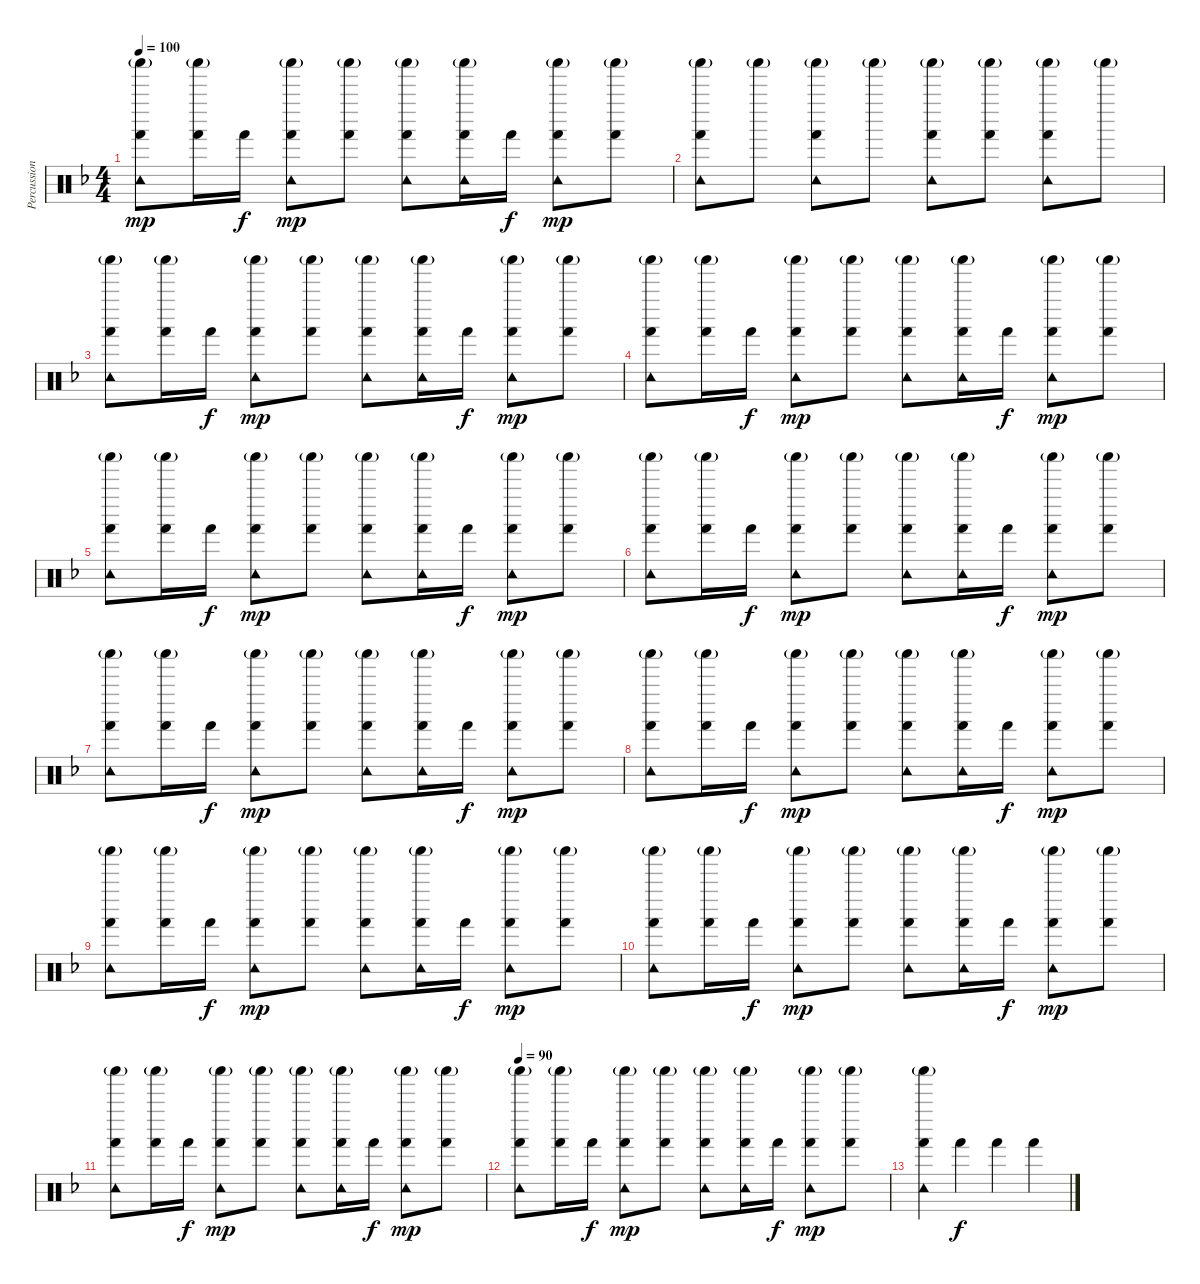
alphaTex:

\track ("Percussion" "Percussion") {instrument percussion}
\staff {score}
\articulation defaults
\ts (4 4)
\tempo 100
\clef neutral
\ks f
("Tambourine (hit)" "Shaker (hit)"{g} "Hand (hit)").8{dy mp} ("Shaker (hit)"{g} "Hand (hit)").16 "Hand (hit)".16{dy f} ("Tambourine (hit)" "Shaker (hit)"{g} "Hand (hit)").8{dy mp} ("Shaker (hit)"{g} "Hand (hit)").8 ("Tambourine (hit)" "Shaker (hit)"{g} "Hand (hit)").8 ("Tambourine (hit)" "Shaker (hit)"{g} "Hand (hit)").16 "Hand (hit)".16{dy f} ("Tambourine (hit)" "Shaker (hit)"{g} "Hand (hit)").8{dy mp} ("Shaker (hit)"{g} "Hand (hit)").8 |
("Tambourine (hit)" "Shaker (hit)"{g} "Hand (hit)").8 "Shaker (hit)"{g}.8 ("Tambourine (hit)" "Shaker (hit)"{g} "Hand (hit)").8 "Shaker (hit)"{g}.8 ("Tambourine (hit)" "Shaker (hit)"{g} "Hand (hit)").8 ("Shaker (hit)"{g} "Hand (hit)").8 ("Tambourine (hit)" "Shaker (hit)"{g} "Hand (hit)").8 "Shaker (hit)"{g}.8 |
("Tambourine (hit)" "Shaker (hit)"{g} "Hand (hit)").8 ("Shaker (hit)"{g} "Hand (hit)").16 "Hand (hit)".16{dy f} ("Tambourine (hit)" "Shaker (hit)"{g} "Hand (hit)").8{dy mp} ("Shaker (hit)"{g} "Hand (hit)").8 ("Tambourine (hit)" "Shaker (hit)"{g} "Hand (hit)").8 ("Tambourine (hit)" "Shaker (hit)"{g} "Hand (hit)").16 "Hand (hit)".16{dy f} ("Tambourine (hit)" "Shaker (hit)"{g} "Hand (hit)").8{dy mp} ("Shaker (hit)"{g} "Hand (hit)").8 |
("Tambourine (hit)" "Shaker (hit)"{g} "Hand (hit)").8 ("Shaker (hit)"{g} "Hand (hit)").16 "Hand (hit)".16{dy f} ("Tambourine (hit)" "Shaker (hit)"{g} "Hand (hit)").8{dy mp} ("Shaker (hit)"{g} "Hand (hit)").8 ("Tambourine (hit)" "Shaker (hit)"{g} "Hand (hit)").8 ("Tambourine (hit)" "Shaker (hit)"{g} "Hand (hit)").16 "Hand (hit)".16{dy f} ("Tambourine (hit)" "Shaker (hit)"{g} "Hand (hit)").8{dy mp} ("Shaker (hit)"{g} "Hand (hit)").8 |
("Tambourine (hit)" "Shaker (hit)"{g} "Hand (hit)").8 ("Shaker (hit)"{g} "Hand (hit)").16 "Hand (hit)".16{dy f} ("Tambourine (hit)" "Shaker (hit)"{g} "Hand (hit)").8{dy mp} ("Shaker (hit)"{g} "Hand (hit)").8 ("Tambourine (hit)" "Shaker (hit)"{g} "Hand (hit)").8 ("Tambourine (hit)" "Shaker (hit)"{g} "Hand (hit)").16 "Hand (hit)".16{dy f} ("Tambourine (hit)" "Shaker (hit)"{g} "Hand (hit)").8{dy mp} ("Shaker (hit)"{g} "Hand (hit)").8 |
("Tambourine (hit)" "Shaker (hit)"{g} "Hand (hit)").8 ("Shaker (hit)"{g} "Hand (hit)").16 "Hand (hit)".16{dy f} ("Tambourine (hit)" "Shaker (hit)"{g} "Hand (hit)").8{dy mp} ("Shaker (hit)"{g} "Hand (hit)").8 ("Tambourine (hit)" "Shaker (hit)"{g} "Hand (hit)").8 ("Tambourine (hit)" "Shaker (hit)"{g} "Hand (hit)").16 "Hand (hit)".16{dy f} ("Tambourine (hit)" "Shaker (hit)"{g} "Hand (hit)").8{dy mp} ("Shaker (hit)"{g} "Hand (hit)").8 |
("Tambourine (hit)" "Shaker (hit)"{g} "Hand (hit)").8 ("Shaker (hit)"{g} "Hand (hit)").16 "Hand (hit)".16{dy f} ("Tambourine (hit)" "Shaker (hit)"{g} "Hand (hit)").8{dy mp} ("Shaker (hit)"{g} "Hand (hit)").8 ("Tambourine (hit)" "Shaker (hit)"{g} "Hand (hit)").8 ("Tambourine (hit)" "Shaker (hit)"{g} "Hand (hit)").16 "Hand (hit)".16{dy f} ("Tambourine (hit)" "Shaker (hit)"{g} "Hand (hit)").8{dy mp} ("Shaker (hit)"{g} "Hand (hit)").8 |
("Tambourine (hit)" "Shaker (hit)"{g} "Hand (hit)").8 ("Shaker (hit)"{g} "Hand (hit)").16 "Hand (hit)".16{dy f} ("Tambourine (hit)" "Shaker (hit)"{g} "Hand (hit)").8{dy mp} ("Shaker (hit)"{g} "Hand (hit)").8 ("Tambourine (hit)" "Shaker (hit)"{g} "Hand (hit)").8 ("Tambourine (hit)" "Shaker (hit)"{g} "Hand (hit)").16 "Hand (hit)".16{dy f} ("Tambourine (hit)" "Shaker (hit)"{g} "Hand (hit)").8{dy mp} ("Shaker (hit)"{g} "Hand (hit)").8 |
("Tambourine (hit)" "Shaker (hit)"{g} "Hand (hit)").8 ("Shaker (hit)"{g} "Hand (hit)").16 "Hand (hit)".16{dy f} ("Tambourine (hit)" "Shaker (hit)"{g} "Hand (hit)").8{dy mp} ("Shaker (hit)"{g} "Hand (hit)").8 ("Tambourine (hit)" "Shaker (hit)"{g} "Hand (hit)").8 ("Tambourine (hit)" "Shaker (hit)"{g} "Hand (hit)").16 "Hand (hit)".16{dy f} ("Tambourine (hit)" "Shaker (hit)"{g} "Hand (hit)").8{dy mp} ("Shaker (hit)"{g} "Hand (hit)").8 |
("Tambourine (hit)" "Shaker (hit)"{g} "Hand (hit)").8 ("Shaker (hit)"{g} "Hand (hit)").16 "Hand (hit)".16{dy f} ("Tambourine (hit)" "Shaker (hit)"{g} "Hand (hit)").8{dy mp} ("Shaker (hit)"{g} "Hand (hit)").8 ("Tambourine (hit)" "Shaker (hit)"{g} "Hand (hit)").8 ("Tambourine (hit)" "Shaker (hit)"{g} "Hand (hit)").16 "Hand (hit)".16{dy f} ("Tambourine (hit)" "Shaker (hit)"{g} "Hand (hit)").8{dy mp} ("Shaker (hit)"{g} "Hand (hit)").8 |
("Tambourine (hit)" "Shaker (hit)"{g} "Hand (hit)").8 ("Shaker (hit)"{g} "Hand (hit)").16 "Hand (hit)".16{dy f} ("Tambourine (hit)" "Shaker (hit)"{g} "Hand (hit)").8{dy mp} ("Shaker (hit)"{g} "Hand (hit)").8 ("Tambourine (hit)" "Shaker (hit)"{g} "Hand (hit)").8 ("Tambourine (hit)" "Shaker (hit)"{g} "Hand (hit)").16 "Hand (hit)".16{dy f} ("Tambourine (hit)" "Shaker (hit)"{g} "Hand (hit)").8{dy mp} ("Shaker (hit)"{g} "Hand (hit)").8 |
\tempo 90
("Tambourine (hit)" "Shaker (hit)"{g} "Hand (hit)").8 ("Shaker (hit)"{g} "Hand (hit)").16 "Hand (hit)".16{dy f} ("Tambourine (hit)" "Shaker (hit)"{g} "Hand (hit)").8{dy mp} ("Shaker (hit)"{g} "Hand (hit)").8 ("Tambourine (hit)" "Shaker (hit)"{g} "Hand (hit)").8 ("Tambourine (hit)" "Shaker (hit)"{g} "Hand (hit)").16 "Hand (hit)".16{dy f} ("Tambourine (hit)" "Shaker (hit)"{g} "Hand (hit)").8{dy mp} ("Shaker (hit)"{g} "Hand (hit)").8 |
("Tambourine (hit)" "Shaker (hit)"{g} "Hand (hit)").4 "Hand (hit)".4{dy f} "Hand (hit)".4 "Hand (hit)".4
